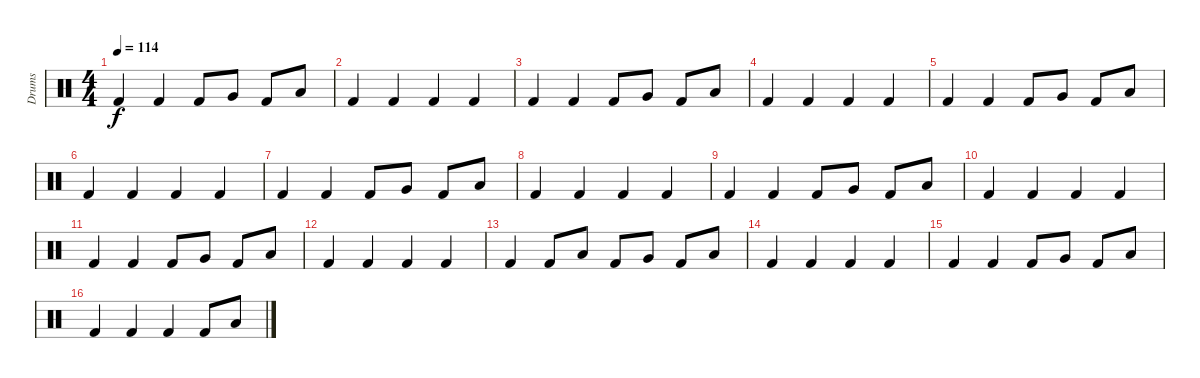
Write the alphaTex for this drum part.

\track ("Drums" "Drums") {instrument percussion}
\staff {score}
\articulation defaults
\ts (4 4)
\tempo 114
\clef neutral
\ks c "Kick (hit) 2".4{dy f} "Kick (hit) 2".4 "Kick (hit) 2".8 "Very Low Tom (hit)".8 "Kick (hit) 2".8 "Low Floor Tom (hit)".8
|
"Kick (hit) 2".4 "Kick (hit) 2".4 "Kick (hit) 2".4 "Kick (hit) 2".4 |
"Kick (hit) 2".4 "Kick (hit) 2".4 "Kick (hit) 2".8 "Very Low Tom (hit)".8 "Kick (hit) 2".8 "Low Floor Tom (hit)".8 |
"Kick (hit) 2".4 "Kick (hit) 2".4 "Kick (hit) 2".4 "Kick (hit) 2".4 |
"Kick (hit) 2".4 "Kick (hit) 2".4 "Kick (hit) 2".8 "Very Low Tom (hit)".8 "Kick (hit) 2".8 "Low Floor Tom (hit)".8 |
"Kick (hit) 2".4 "Kick (hit) 2".4 "Kick (hit) 2".4 "Kick (hit) 2".4 |
"Kick (hit) 2".4 "Kick (hit) 2".4 "Kick (hit) 2".8 "Very Low Tom (hit)".8 "Kick (hit) 2".8 "Low Floor Tom (hit)".8 |
"Kick (hit) 2".4 "Kick (hit) 2".4 "Kick (hit) 2".4 "Kick (hit) 2".4 |
"Kick (hit) 2".4 "Kick (hit) 2".4 "Kick (hit) 2".8 "Very Low Tom (hit)".8 "Kick (hit) 2".8 "Low Floor Tom (hit)".8 |
"Kick (hit) 2".4 "Kick (hit) 2".4 "Kick (hit) 2".4 "Kick (hit) 2".4 |
"Kick (hit) 2".4 "Kick (hit) 2".4 "Kick (hit) 2".8 "Very Low Tom (hit)".8 "Kick (hit) 2".8 "Low Floor Tom (hit)".8 |
"Kick (hit) 2".4 "Kick (hit) 2".4 "Kick (hit) 2".4 "Kick (hit) 2".4 |
"Kick (hit) 2".4 "Kick (hit) 2".8 "Low Tom (hit)".8 "Kick (hit) 2".8 "Very Low Tom (hit)".8 "Kick (hit) 2".8 "Low Floor Tom (hit)".8 |
"Kick (hit) 2".4 "Kick (hit) 2".4 "Kick (hit) 2".4 "Kick (hit) 2".4 |
"Kick (hit) 2".4 "Kick (hit) 2".4 "Kick (hit) 2".8 "Very Low Tom (hit)".8 "Kick (hit) 2".8 "Low Floor Tom (hit)".8 |
"Kick (hit) 2".4 "Kick (hit) 2".4 "Kick (hit) 2".4 "Kick (hit) 2".8 "Low Floor Tom (hit)".8
